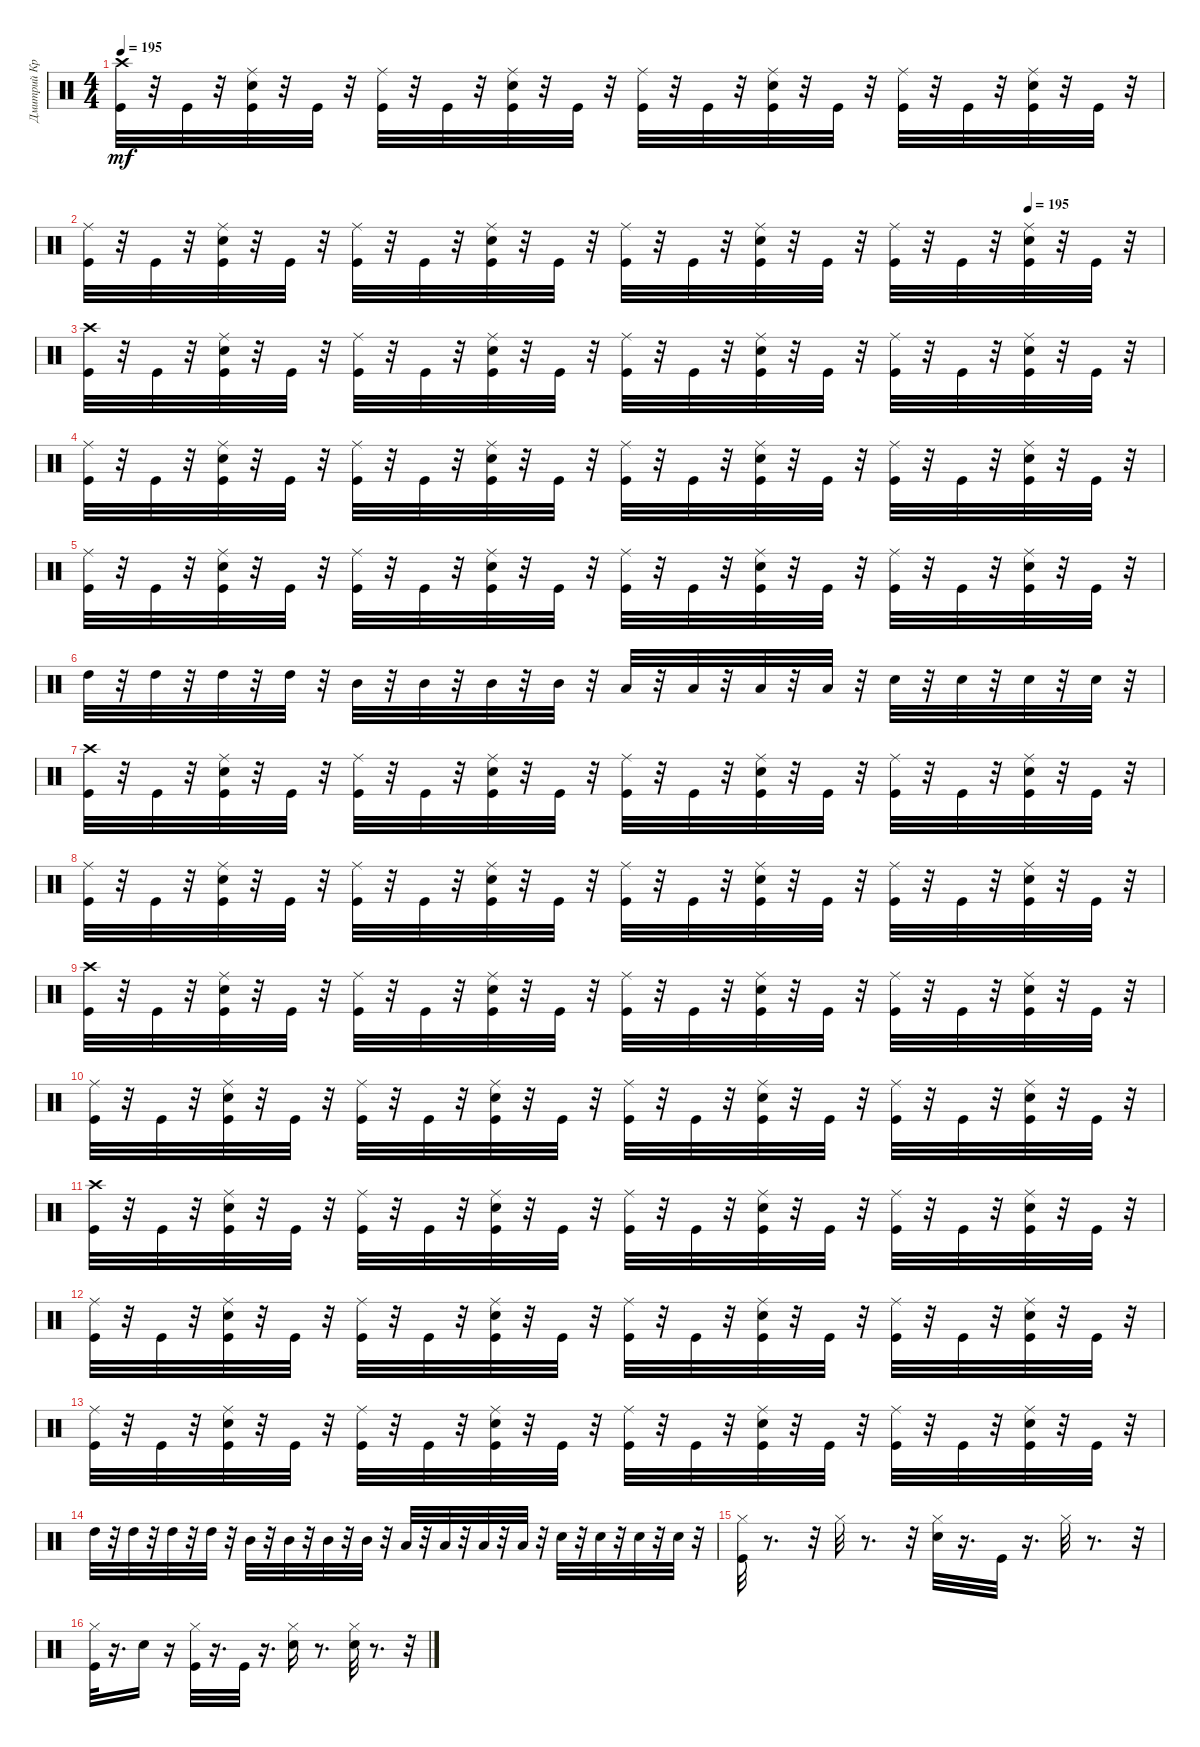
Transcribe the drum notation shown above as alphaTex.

\track ("Дмитрий Кривенков" "Дмитрий Кр") {instrument percussion}
\staff {score}
\articulation defaults
\ts (4 4)
\tempo 195
\clef neutral
\ks c
("Crash high (hit)" "Kick (hit)").32{dy mf} r.32 "Kick (hit)".32 r.32 ("Electric Snare (hit)" "Kick (hit)" "Ride (middle)").32 r.32 "Kick (hit)".32 r.32 ("Ride (middle)" "Kick (hit)").32 r.32 "Kick (hit)".32 r.32 ("Ride (middle)" "Electric Snare (hit)" "Kick (hit)").32 r.32 "Kick (hit)".32 r.32 ("Ride (middle)" "Kick (hit)").32 r.32 "Kick (hit)".32 r.32 ("Ride (middle)" "Kick (hit)" "Electric Snare (hit)").32 r.32 "Kick (hit)".32 r.32 ("Ride (middle)" "Kick (hit)").32 r.32 "Kick (hit)".32 r.32 ("Ride (middle)" "Electric Snare (hit)" "Kick (hit)").32 r.32 "Kick (hit)".32 r.32 |
\tempo (195 0.875)
("Ride (middle)" "Kick (hit)").32 r.32 "Kick (hit)".32 r.32 ("Electric Snare (hit)" "Kick (hit)" "Ride (middle)").32 r.32 "Kick (hit)".32 r.32 ("Ride (middle)" "Kick (hit)").32 r.32 "Kick (hit)".32 r.32 ("Ride (middle)" "Electric Snare (hit)" "Kick (hit)").32 r.32 "Kick (hit)".32 r.32 ("Ride (middle)" "Kick (hit)").32 r.32 "Kick (hit)".32 r.32 ("Ride (middle)" "Kick (hit)" "Electric Snare (hit)").32 r.32 "Kick (hit)".32 r.32 ("Ride (middle)" "Kick (hit)").32 r.32 "Kick (hit)".32 r.32 ("Ride (middle)" "Electric Snare (hit)" "Kick (hit)").32 r.32 "Kick (hit)".32 r.32 |
("Crash high (hit)" "Kick (hit)").32 r.32 "Kick (hit)".32 r.32 ("Electric Snare (hit)" "Kick (hit)" "Ride (middle)").32 r.32 "Kick (hit)".32 r.32 ("Ride (middle)" "Kick (hit)").32 r.32 "Kick (hit)".32 r.32 ("Ride (middle)" "Electric Snare (hit)" "Kick (hit)").32 r.32 "Kick (hit)".32 r.32 ("Ride (middle)" "Kick (hit)").32 r.32 "Kick (hit)".32 r.32 ("Ride (middle)" "Kick (hit)" "Electric Snare (hit)").32 r.32 "Kick (hit)".32 r.32 ("Ride (middle)" "Kick (hit)").32 r.32 "Kick (hit)".32 r.32 ("Ride (middle)" "Electric Snare (hit)" "Kick (hit)").32 r.32 "Kick (hit)".32 r.32 |
("Ride (middle)" "Kick (hit)").32 r.32 "Kick (hit)".32 r.32 ("Electric Snare (hit)" "Kick (hit)" "Ride (middle)").32 r.32 "Kick (hit)".32 r.32 ("Ride (middle)" "Kick (hit)").32 r.32 "Kick (hit)".32 r.32 ("Ride (middle)" "Electric Snare (hit)" "Kick (hit)").32 r.32 "Kick (hit)".32 r.32 ("Ride (middle)" "Kick (hit)").32 r.32 "Kick (hit)".32 r.32 ("Ride (middle)" "Kick (hit)" "Electric Snare (hit)").32 r.32 "Kick (hit)".32 r.32 ("Ride (middle)" "Kick (hit)").32 r.32 "Kick (hit)".32 r.32 ("Ride (middle)" "Electric Snare (hit)" "Kick (hit)").32 r.32 "Kick (hit)".32 r.32 |
("Ride (middle)" "Kick (hit)").32 r.32 "Kick (hit)".32 r.32 ("Electric Snare (hit)" "Kick (hit)" "Ride (middle)").32 r.32 "Kick (hit)".32 r.32 ("Ride (middle)" "Kick (hit)").32 r.32 "Kick (hit)".32 r.32 ("Ride (middle)" "Electric Snare (hit)" "Kick (hit)").32 r.32 "Kick (hit)".32 r.32 ("Ride (middle)" "Kick (hit)").32 r.32 "Kick (hit)".32 r.32 ("Ride (middle)" "Kick (hit)" "Electric Snare (hit)").32 r.32 "Kick (hit)".32 r.32 ("Ride (middle)" "Kick (hit)").32 r.32 "Kick (hit)".32 r.32 ("Ride (middle)" "Electric Snare (hit)" "Kick (hit)").32 r.32 "Kick (hit)".32 r.32 |
"High Tom (hit)".32 r.32 "High Tom (hit)".32 r.32 "High Tom (hit)".32 r.32 "High Tom (hit)".32 r.32 "Mid Tom (hit)".32 r.32 "Mid Tom (hit)".32 r.32 "Mid Tom (hit)".32 r.32 "Mid Tom (hit)".32 r.32 "Low Tom (hit)".32 r.32 "Low Tom (hit)".32 r.32 "Low Tom (hit)".32 r.32 "Low Tom (hit)".32 r.32 "Electric Snare (hit)".32 r.32 "Electric Snare (hit)".32 r.32 "Electric Snare (hit)".32 r.32 "Electric Snare (hit)".32 r.32 |
("Crash high (hit)" "Kick (hit)").32 r.32 "Kick (hit)".32 r.32 ("Electric Snare (hit)" "Kick (hit)" "Ride (middle)").32 r.32 "Kick (hit)".32 r.32 ("Ride (middle)" "Kick (hit)").32 r.32 "Kick (hit)".32 r.32 ("Ride (middle)" "Electric Snare (hit)" "Kick (hit)").32 r.32 "Kick (hit)".32 r.32 ("Ride (middle)" "Kick (hit)").32 r.32 "Kick (hit)".32 r.32 ("Ride (middle)" "Kick (hit)" "Electric Snare (hit)").32 r.32 "Kick (hit)".32 r.32 ("Ride (middle)" "Kick (hit)").32 r.32 "Kick (hit)".32 r.32 ("Ride (middle)" "Electric Snare (hit)" "Kick (hit)").32 r.32 "Kick (hit)".32 r.32 |
("Ride (middle)" "Kick (hit)").32 r.32 "Kick (hit)".32 r.32 ("Electric Snare (hit)" "Kick (hit)" "Ride (middle)").32 r.32 "Kick (hit)".32 r.32 ("Ride (middle)" "Kick (hit)").32 r.32 "Kick (hit)".32 r.32 ("Ride (middle)" "Electric Snare (hit)" "Kick (hit)").32 r.32 "Kick (hit)".32 r.32 ("Ride (middle)" "Kick (hit)").32 r.32 "Kick (hit)".32 r.32 ("Ride (middle)" "Kick (hit)" "Electric Snare (hit)").32 r.32 "Kick (hit)".32 r.32 ("Ride (middle)" "Kick (hit)").32 r.32 "Kick (hit)".32 r.32 ("Ride (middle)" "Electric Snare (hit)" "Kick (hit)").32 r.32 "Kick (hit)".32 r.32 |
("Crash high (hit)" "Kick (hit)").32 r.32 "Kick (hit)".32 r.32 ("Electric Snare (hit)" "Kick (hit)" "Ride (middle)").32 r.32 "Kick (hit)".32 r.32 ("Ride (middle)" "Kick (hit)").32 r.32 "Kick (hit)".32 r.32 ("Ride (middle)" "Electric Snare (hit)" "Kick (hit)").32 r.32 "Kick (hit)".32 r.32 ("Ride (middle)" "Kick (hit)").32 r.32 "Kick (hit)".32 r.32 ("Ride (middle)" "Kick (hit)" "Electric Snare (hit)").32 r.32 "Kick (hit)".32 r.32 ("Ride (middle)" "Kick (hit)").32 r.32 "Kick (hit)".32 r.32 ("Ride (middle)" "Electric Snare (hit)" "Kick (hit)").32 r.32 "Kick (hit)".32 r.32 |
("Ride (middle)" "Kick (hit)").32 r.32 "Kick (hit)".32 r.32 ("Electric Snare (hit)" "Kick (hit)" "Ride (middle)").32 r.32 "Kick (hit)".32 r.32 ("Ride (middle)" "Kick (hit)").32 r.32 "Kick (hit)".32 r.32 ("Ride (middle)" "Electric Snare (hit)" "Kick (hit)").32 r.32 "Kick (hit)".32 r.32 ("Ride (middle)" "Kick (hit)").32 r.32 "Kick (hit)".32 r.32 ("Ride (middle)" "Kick (hit)" "Electric Snare (hit)").32 r.32 "Kick (hit)".32 r.32 ("Ride (middle)" "Kick (hit)").32 r.32 "Kick (hit)".32 r.32 ("Ride (middle)" "Electric Snare (hit)" "Kick (hit)").32 r.32 "Kick (hit)".32 r.32 |
("Crash high (hit)" "Kick (hit)").32 r.32 "Kick (hit)".32 r.32 ("Electric Snare (hit)" "Kick (hit)" "Ride (middle)").32 r.32 "Kick (hit)".32 r.32 ("Ride (middle)" "Kick (hit)").32 r.32 "Kick (hit)".32 r.32 ("Ride (middle)" "Electric Snare (hit)" "Kick (hit)").32 r.32 "Kick (hit)".32 r.32 ("Ride (middle)" "Kick (hit)").32 r.32 "Kick (hit)".32 r.32 ("Ride (middle)" "Kick (hit)" "Electric Snare (hit)").32 r.32 "Kick (hit)".32 r.32 ("Ride (middle)" "Kick (hit)").32 r.32 "Kick (hit)".32 r.32 ("Ride (middle)" "Electric Snare (hit)" "Kick (hit)").32 r.32 "Kick (hit)".32 r.32 |
("Ride (middle)" "Kick (hit)").32 r.32 "Kick (hit)".32 r.32 ("Electric Snare (hit)" "Kick (hit)" "Ride (middle)").32 r.32 "Kick (hit)".32 r.32 ("Ride (middle)" "Kick (hit)").32 r.32 "Kick (hit)".32 r.32 ("Ride (middle)" "Electric Snare (hit)" "Kick (hit)").32 r.32 "Kick (hit)".32 r.32 ("Ride (middle)" "Kick (hit)").32 r.32 "Kick (hit)".32 r.32 ("Ride (middle)" "Kick (hit)" "Electric Snare (hit)").32 r.32 "Kick (hit)".32 r.32 ("Ride (middle)" "Kick (hit)").32 r.32 "Kick (hit)".32 r.32 ("Ride (middle)" "Electric Snare (hit)" "Kick (hit)").32 r.32 "Kick (hit)".32 r.32 |
("Ride (middle)" "Kick (hit)").32 r.32 "Kick (hit)".32 r.32 ("Electric Snare (hit)" "Kick (hit)" "Ride (middle)").32 r.32 "Kick (hit)".32 r.32 ("Ride (middle)" "Kick (hit)").32 r.32 "Kick (hit)".32 r.32 ("Ride (middle)" "Electric Snare (hit)" "Kick (hit)").32 r.32 "Kick (hit)".32 r.32 ("Ride (middle)" "Kick (hit)").32 r.32 "Kick (hit)".32 r.32 ("Ride (middle)" "Kick (hit)" "Electric Snare (hit)").32 r.32 "Kick (hit)".32 r.32 ("Ride (middle)" "Kick (hit)").32 r.32 "Kick (hit)".32 r.32 ("Ride (middle)" "Electric Snare (hit)" "Kick (hit)").32 r.32 "Kick (hit)".32 r.32 |
"High Tom (hit)".32 r.32 "High Tom (hit)".32 r.32 "High Tom (hit)".32 r.32 "High Tom (hit)".32 r.32 "Mid Tom (hit)".32 r.32 "Mid Tom (hit)".32 r.32 "Mid Tom (hit)".32 r.32 "Mid Tom (hit)".32 r.32 "Low Tom (hit)".32 r.32 "Low Tom (hit)".32 r.32 "Low Tom (hit)".32 r.32 "Low Tom (hit)".32 r.32 "Electric Snare (hit)".32 r.32 "Electric Snare (hit)".32 r.32 "Electric Snare (hit)".32 r.32 "Electric Snare (hit)".32 r.32 |
("Kick (hit)" "Hi-Hat (closed)").32 r.8{d} r.32 "Hi-Hat (closed)".32 r.8{d} r.32 ("Hi-Hat (closed)" "Electric Snare (hit)").32 r.16{d} "Kick (hit)".32 r.16{d} "Hi-Hat (closed)".32 r.8{d} r.32 |
("Hi-Hat (closed)" "Kick (hit)").32 r.16{d} "Electric Snare (hit)".16 r.16 ("Kick (hit)" "Hi-Hat (closed)").32 r.16{d} "Kick (hit)".32 r.16{d} ("Hi-Hat (closed)" "Electric Snare (hit)").16 r.8{d} ("Electric Snare (hit)" "Hi-Hat (closed)").32 r.8{d} r.32
